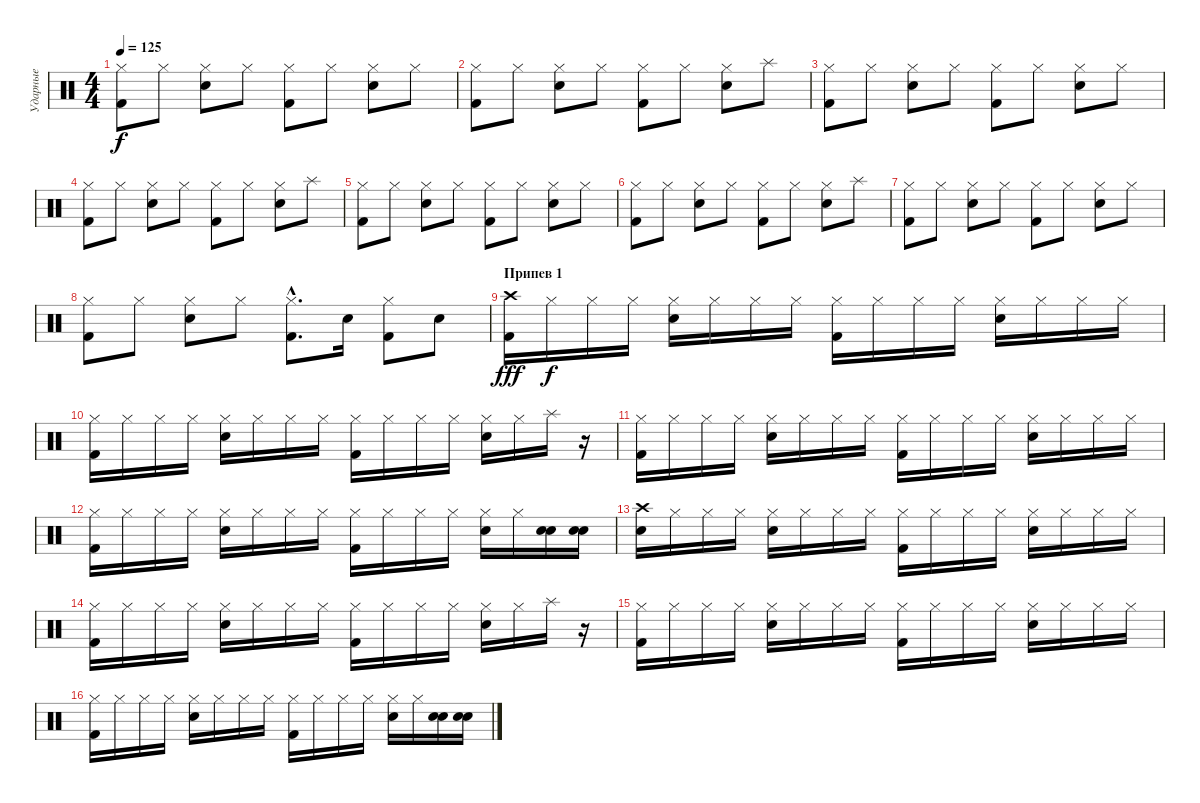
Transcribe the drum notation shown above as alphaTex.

\track ("Ударные" "Ударные") {instrument percussion}
\staff {score}
\articulation defaults
\ts (4 4)
\tempo 125
\clef neutral
\ks c
("Kick (hit) 2" "Hi-Hat (closed)").8{dy f} "Hi-Hat (closed)".8 ("Snare (hit) 2" "Hi-Hat (closed)").8 "Hi-Hat (closed)".8 ("Kick (hit) 2" "Hi-Hat (closed)").8 "Hi-Hat (closed)".8 ("Snare (hit) 2" "Hi-Hat (closed)").8 "Hi-Hat (closed)".8 |
("Kick (hit) 2" "Hi-Hat (closed)").8 "Hi-Hat (closed)".8 ("Snare (hit) 2" "Hi-Hat (closed)").8 "Hi-Hat (closed)".8 ("Kick (hit) 2" "Hi-Hat (closed)").8 "Hi-Hat (closed)".8 ("Snare (hit) 2" "Hi-Hat (closed)").8 "Splash (hit)".8 |
("Kick (hit) 2" "Hi-Hat (closed)").8 "Hi-Hat (closed)".8 ("Snare (hit) 2" "Hi-Hat (closed)").8 "Hi-Hat (closed)".8 ("Kick (hit) 2" "Hi-Hat (closed)").8 "Hi-Hat (closed)".8 ("Snare (hit) 2" "Hi-Hat (closed)").8 "Hi-Hat (closed)".8 |
("Kick (hit) 2" "Hi-Hat (closed)").8 "Hi-Hat (closed)".8 ("Snare (hit) 2" "Hi-Hat (closed)").8 "Hi-Hat (closed)".8 ("Kick (hit) 2" "Hi-Hat (closed)").8 "Hi-Hat (closed)".8 ("Snare (hit) 2" "Hi-Hat (closed)").8 "Splash (hit)".8 |
("Kick (hit) 2" "Hi-Hat (closed)").8 "Hi-Hat (closed)".8 ("Snare (hit) 2" "Hi-Hat (closed)").8 "Hi-Hat (closed)".8 ("Kick (hit) 2" "Hi-Hat (closed)").8 "Hi-Hat (closed)".8 ("Snare (hit) 2" "Hi-Hat (closed)").8 "Hi-Hat (closed)".8 |
("Kick (hit) 2" "Hi-Hat (closed)").8 "Hi-Hat (closed)".8 ("Snare (hit) 2" "Hi-Hat (closed)").8 "Hi-Hat (closed)".8 ("Kick (hit) 2" "Hi-Hat (closed)").8 "Hi-Hat (closed)".8 ("Snare (hit) 2" "Hi-Hat (closed)").8 "Splash (hit)".8 |
("Kick (hit) 2" "Hi-Hat (closed)").8 "Hi-Hat (closed)".8 ("Snare (hit) 2" "Hi-Hat (closed)").8 "Hi-Hat (closed)".8 ("Kick (hit) 2" "Hi-Hat (closed)").8 "Hi-Hat (closed)".8 ("Snare (hit) 2" "Hi-Hat (closed)").8 "Hi-Hat (closed)".8 |
("Kick (hit) 2" "Hi-Hat (closed)").8 "Hi-Hat (closed)".8 ("Snare (hit) 2" "Hi-Hat (closed)").8 "Hi-Hat (closed)".8 ("Kick (hit) 2"{hac} "Hi-Hat (closed)"{hac}).8{d} "Snare (hit) 2".16 ("Kick (hit) 2" "Hi-Hat (closed)").8 "Snare (hit) 2".8 |
\section ("" "Припев 1")
("Crash high (hit)" "Kick (hit) 2").16{dy fff} "Hi-Hat (closed)".16{dy f} "Hi-Hat (closed)".16 "Hi-Hat (closed)".16 ("Hi-Hat (closed)" "Snare (hit) 2").16 "Hi-Hat (closed)".16 "Hi-Hat (closed)".16 "Hi-Hat (closed)".16 ("Hi-Hat (closed)" "Kick (hit) 2").16 "Hi-Hat (closed)".16 "Hi-Hat (closed)".16 "Hi-Hat (closed)".16 ("Hi-Hat (closed)" "Snare (hit) 2").16 "Hi-Hat (closed)".16 "Hi-Hat (closed)".16 "Hi-Hat (closed)".16 |
("Hi-Hat (closed)" "Kick (hit) 2").16 "Hi-Hat (closed)".16 "Hi-Hat (closed)".16 "Hi-Hat (closed)".16 ("Hi-Hat (closed)" "Snare (hit) 2").16 "Hi-Hat (closed)".16 "Hi-Hat (closed)".16 "Hi-Hat (closed)".16 ("Hi-Hat (closed)" "Kick (hit) 2").16 "Hi-Hat (closed)".16 "Hi-Hat (closed)".16 "Hi-Hat (closed)".16 ("Hi-Hat (closed)" "Snare (hit) 2").16 "Hi-Hat (closed)".16 "Splash (hit)".16 r.16 |
("Hi-Hat (closed)" "Kick (hit) 2").16 "Hi-Hat (closed)".16 "Hi-Hat (closed)".16 "Hi-Hat (closed)".16 ("Hi-Hat (closed)" "Snare (hit) 2").16 "Hi-Hat (closed)".16 "Hi-Hat (closed)".16 "Hi-Hat (closed)".16 ("Hi-Hat (closed)" "Kick (hit) 2").16 "Hi-Hat (closed)".16 "Hi-Hat (closed)".16 "Hi-Hat (closed)".16 ("Hi-Hat (closed)" "Snare (hit) 2").16 "Hi-Hat (closed)".16 "Hi-Hat (closed)".16 "Hi-Hat (closed)".16 |
("Hi-Hat (closed)" "Kick (hit) 2").16 "Hi-Hat (closed)".16 "Hi-Hat (closed)".16 "Hi-Hat (closed)".16 ("Hi-Hat (closed)" "Snare (hit) 2").16 "Hi-Hat (closed)".16 "Hi-Hat (closed)".16 "Hi-Hat (closed)".16 ("Hi-Hat (closed)" "Kick (hit) 2").16 "Hi-Hat (closed)".16 "Hi-Hat (closed)".16 "Hi-Hat (closed)".16 ("Hi-Hat (closed)" "Snare (hit) 2").16 "Hi-Hat (closed)".16 ("Snare (hit) 2" "Electric Snare (hit)").16{balance 0} ("Snare (hit) 2" "Electric Snare (hit)").16 |
("Snare (hit) 2" "Crash high (hit)").16{balance 8} "Hi-Hat (closed)".16 "Hi-Hat (closed)".16 "Hi-Hat (closed)".16 ("Hi-Hat (closed)" "Snare (hit) 2").16 "Hi-Hat (closed)".16 "Hi-Hat (closed)".16 "Hi-Hat (closed)".16 ("Hi-Hat (closed)" "Kick (hit) 2").16 "Hi-Hat (closed)".16 "Hi-Hat (closed)".16 "Hi-Hat (closed)".16 ("Hi-Hat (closed)" "Snare (hit) 2").16 "Hi-Hat (closed)".16 "Hi-Hat (closed)".16 "Hi-Hat (closed)".16 |
("Hi-Hat (closed)" "Kick (hit) 2").16 "Hi-Hat (closed)".16 "Hi-Hat (closed)".16 "Hi-Hat (closed)".16 ("Hi-Hat (closed)" "Snare (hit) 2").16 "Hi-Hat (closed)".16 "Hi-Hat (closed)".16 "Hi-Hat (closed)".16 ("Hi-Hat (closed)" "Kick (hit) 2").16 "Hi-Hat (closed)".16 "Hi-Hat (closed)".16 "Hi-Hat (closed)".16 ("Hi-Hat (closed)" "Snare (hit) 2").16 "Hi-Hat (closed)".16 "Splash (hit)".16 r.16 |
("Hi-Hat (closed)" "Kick (hit) 2").16 "Hi-Hat (closed)".16 "Hi-Hat (closed)".16 "Hi-Hat (closed)".16 ("Hi-Hat (closed)" "Snare (hit) 2").16 "Hi-Hat (closed)".16 "Hi-Hat (closed)".16 "Hi-Hat (closed)".16 ("Hi-Hat (closed)" "Kick (hit) 2").16 "Hi-Hat (closed)".16 "Hi-Hat (closed)".16 "Hi-Hat (closed)".16 ("Hi-Hat (closed)" "Snare (hit) 2").16 "Hi-Hat (closed)".16 "Hi-Hat (closed)".16 "Hi-Hat (closed)".16 |
("Hi-Hat (closed)" "Kick (hit) 2").16 "Hi-Hat (closed)".16 "Hi-Hat (closed)".16 "Hi-Hat (closed)".16 ("Hi-Hat (closed)" "Snare (hit) 2").16 "Hi-Hat (closed)".16 "Hi-Hat (closed)".16 "Hi-Hat (closed)".16 ("Hi-Hat (closed)" "Kick (hit) 2").16 "Hi-Hat (closed)".16 "Hi-Hat (closed)".16 "Hi-Hat (closed)".16 ("Hi-Hat (closed)" "Snare (hit) 2").16 "Hi-Hat (closed)".16 ("Snare (hit) 2" "Electric Snare (hit)").16{balance 0} ("Snare (hit) 2" "Electric Snare (hit)").16
